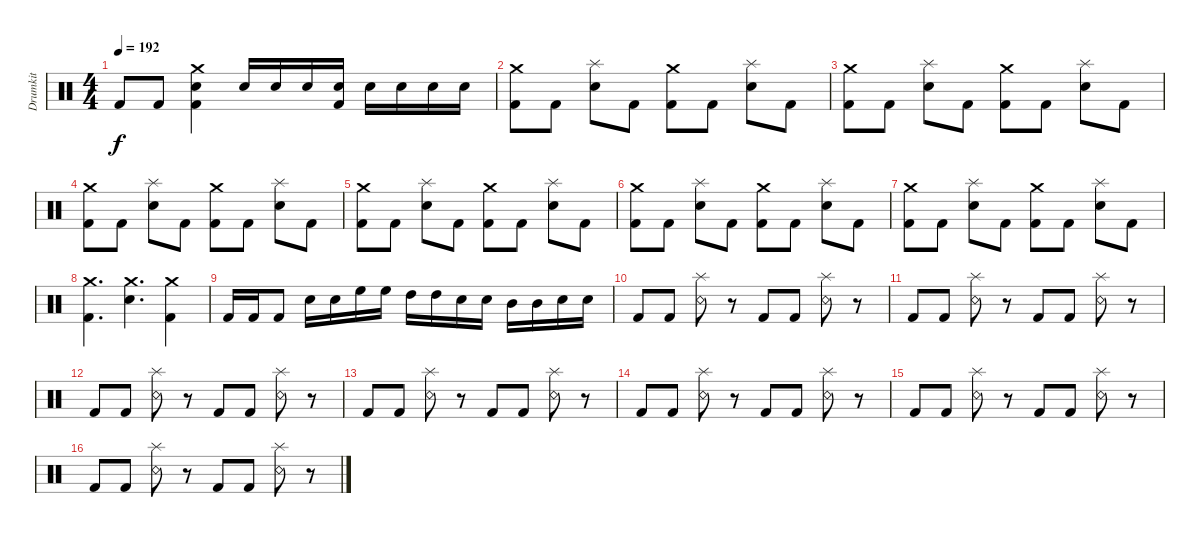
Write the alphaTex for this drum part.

\track ("Drumkit" "Drumkit") {instrument percussion}
\staff {score}
\articulation defaults
\ts (4 4)
\tempo 192
\clef neutral
\ks c "Kick (hit) 2"{t}.8{dy f} "Kick (hit) 2".8
("Kick (hit) 2" "Snare (hit) 2" "Crash medium (hit)").4 "Snare (hit) 2".16 "Snare (hit) 2".16 "Snare (hit) 2".16 ("Snare (hit) 2" "Kick (hit) 2").16 "Snare (hit) 2".16 "Snare (hit) 2".16 "Snare (hit) 2".16 "Snare (hit) 2".16 |
("Crash medium (hit)" "Kick (hit) 2").8 "Kick (hit) 2".8 ("Snare (hit) 2" "Splash (hit)").8 "Kick (hit) 2".8 ("Crash medium (hit)" "Kick (hit) 2").8 "Kick (hit) 2".8 ("Snare (hit) 2" "Splash (hit)").8 "Kick (hit) 2".8 |
("Crash medium (hit)" "Kick (hit) 2").8 "Kick (hit) 2".8 ("Snare (hit) 2" "Splash (hit)").8 "Kick (hit) 2".8 ("Crash medium (hit)" "Kick (hit) 2").8 "Kick (hit) 2".8 ("Snare (hit) 2" "Splash (hit)").8 "Kick (hit) 2".8 |
("Crash medium (hit)" "Kick (hit) 2").8 "Kick (hit) 2".8 ("Snare (hit) 2" "Splash (hit)").8 "Kick (hit) 2".8 ("Crash medium (hit)" "Kick (hit) 2").8 "Kick (hit) 2".8 ("Snare (hit) 2" "Splash (hit)").8 "Kick (hit) 2".8 |
("Crash medium (hit)" "Kick (hit) 2").8 "Kick (hit) 2".8 ("Snare (hit) 2" "Splash (hit)").8 "Kick (hit) 2".8 ("Crash medium (hit)" "Kick (hit) 2").8 "Kick (hit) 2".8 ("Snare (hit) 2" "Splash (hit)").8 "Kick (hit) 2".8 |
("Crash medium (hit)" "Kick (hit) 2").8 "Kick (hit) 2".8 ("Snare (hit) 2" "Splash (hit)").8 "Kick (hit) 2".8 ("Crash medium (hit)" "Kick (hit) 2").8 "Kick (hit) 2".8 ("Snare (hit) 2" "Splash (hit)").8 "Kick (hit) 2".8 |
("Crash medium (hit)" "Kick (hit) 2").8 "Kick (hit) 2".8 ("Snare (hit) 2" "Splash (hit)").8 "Kick (hit) 2".8 ("Crash medium (hit)" "Kick (hit) 2").8 "Kick (hit) 2".8 ("Snare (hit) 2" "Splash (hit)").8 "Kick (hit) 2".8 |
("Crash medium (hit)" "Kick (hit) 2").4{d} ("Crash medium (hit)" "Snare (hit) 2").4{d} ("Crash medium (hit)" "Kick (hit) 2").4 |
"Kick (hit) 2".16 "Kick (hit) 2".16 "Kick (hit) 2".8 "Snare (hit) 2".16 "Snare (hit) 2".16 "High Floor Tom (hit)".16 "High Floor Tom (hit)".16 "High Tom (hit)".16 "High Tom (hit)".16 "Snare (hit) 2".16 "Snare (hit) 2".16 "Mid Tom (hit)".16 "Mid Tom (hit)".16 "Snare (hit) 2".16 "Snare (hit) 2".16 |
"Kick (hit) 2".8 "Kick (hit) 2".8 ("Snare (rim shot)" "Splash (hit)").8 r.8 "Kick (hit) 2".8 "Kick (hit) 2".8 ("Snare (rim shot)" "Splash (hit)").8 r.8 |
"Kick (hit) 2".8 "Kick (hit) 2".8 ("Snare (rim shot)" "Splash (hit)").8 r.8 "Kick (hit) 2".8 "Kick (hit) 2".8 ("Snare (rim shot)" "Splash (hit)").8 r.8 |
"Kick (hit) 2".8 "Kick (hit) 2".8 ("Snare (rim shot)" "Splash (hit)").8 r.8 "Kick (hit) 2".8 "Kick (hit) 2".8 ("Snare (rim shot)" "Splash (hit)").8 r.8 |
"Kick (hit) 2".8 "Kick (hit) 2".8 ("Snare (rim shot)" "Splash (hit)").8 r.8 "Kick (hit) 2".8 "Kick (hit) 2".8 ("Snare (rim shot)" "Splash (hit)").8 r.8 |
"Kick (hit) 2".8 "Kick (hit) 2".8 ("Snare (rim shot)" "Splash (hit)").8 r.8 "Kick (hit) 2".8 "Kick (hit) 2".8 ("Snare (rim shot)" "Splash (hit)").8 r.8 |
"Kick (hit) 2".8 "Kick (hit) 2".8 ("Snare (rim shot)" "Splash (hit)").8 r.8 "Kick (hit) 2".8 "Kick (hit) 2".8 ("Snare (rim shot)" "Splash (hit)").8 r.8 |
"Kick (hit) 2".8 "Kick (hit) 2".8 ("Snare (rim shot)" "Splash (hit)").8 r.8 "Kick (hit) 2".8 "Kick (hit) 2".8 ("Snare (rim shot)" "Splash (hit)").8 r.8
